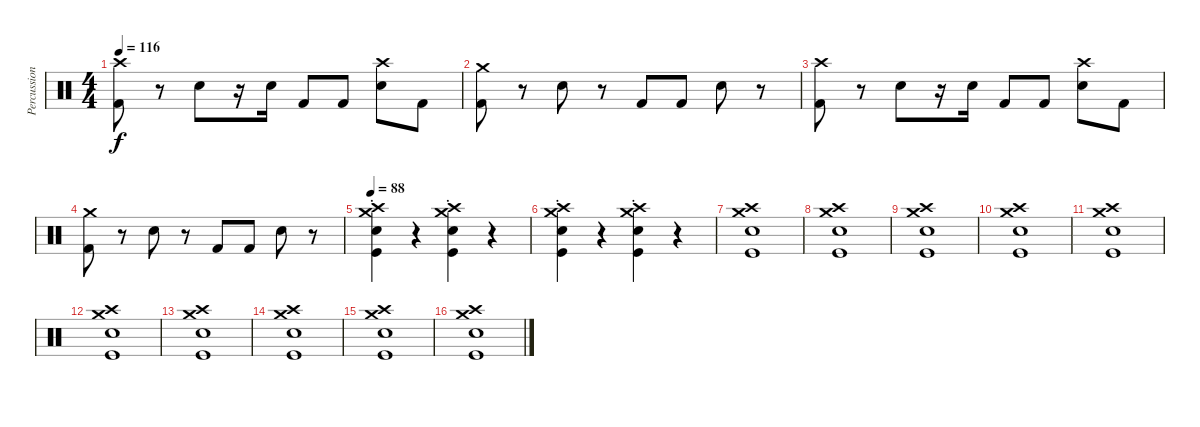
\track ("Percussion" "Percussion") {instrument percussion}
\staff {score}
\articulation defaults
\ts (4 4)
\tempo 116
\clef neutral
\ks c
("Crash high (hit)" "Kick (hit) 2").8{dy f} r.8 "Electric Snare (hit)".8 r.16 "Electric Snare (hit)".16 "Kick (hit) 2".8 "Kick (hit) 2".8 ("Crash high (hit)" "Electric Snare (hit)").8 "Kick (hit) 2".8 |
("Crash medium (hit)" "Kick (hit) 2").8 r.8 "Electric Snare (hit)".8 r.8 "Kick (hit) 2".8 "Kick (hit) 2".8 "Electric Snare (hit)".8 r.8 |
("Crash high (hit)" "Kick (hit) 2").8 r.8 "Electric Snare (hit)".8 r.16 "Electric Snare (hit)".16 "Kick (hit) 2".8 "Kick (hit) 2".8 ("Crash high (hit)" "Electric Snare (hit)").8 "Kick (hit) 2".8 |
("Crash medium (hit)" "Kick (hit) 2").8 r.8 "Electric Snare (hit)".8 r.8 "Kick (hit) 2".8 "Kick (hit) 2".8 "Electric Snare (hit)".8 r.8 |
\tempo 88
("Crash high (hit)"{st} "Crash medium (hit)"{st} "Electric Snare (hit)"{st} "Kick (hit)"{st}).4 r.4 ("Crash high (hit)"{st} "Crash medium (hit)"{st} "Electric Snare (hit)"{st} "Kick (hit)"{st}).4 r.4 |
("Crash high (hit)"{st} "Crash medium (hit)"{st} "Electric Snare (hit)"{st} "Kick (hit)"{st}).4 r.4 ("Crash high (hit)"{st} "Crash medium (hit)"{st} "Electric Snare (hit)"{st} "Kick (hit)"{st}).4 r.4 |
("Crash high (hit)" "Crash medium (hit)" "Electric Snare (hit)" "Kick (hit)").1 |
("Crash high (hit)" "Crash medium (hit)" "Electric Snare (hit)" "Kick (hit)").1 |
("Crash high (hit)" "Crash medium (hit)" "Electric Snare (hit)" "Kick (hit)").1 |
("Crash high (hit)" "Crash medium (hit)" "Electric Snare (hit)" "Kick (hit)").1 |
("Crash high (hit)" "Crash medium (hit)" "Electric Snare (hit)" "Kick (hit)").1 |
("Crash high (hit)" "Crash medium (hit)" "Electric Snare (hit)" "Kick (hit)").1 |
("Crash high (hit)" "Crash medium (hit)" "Electric Snare (hit)" "Kick (hit)").1 |
("Crash high (hit)" "Crash medium (hit)" "Electric Snare (hit)" "Kick (hit)").1 |
("Crash high (hit)" "Crash medium (hit)" "Electric Snare (hit)" "Kick (hit)").1 |
("Crash high (hit)" "Crash medium (hit)" "Electric Snare (hit)" "Kick (hit)").1
